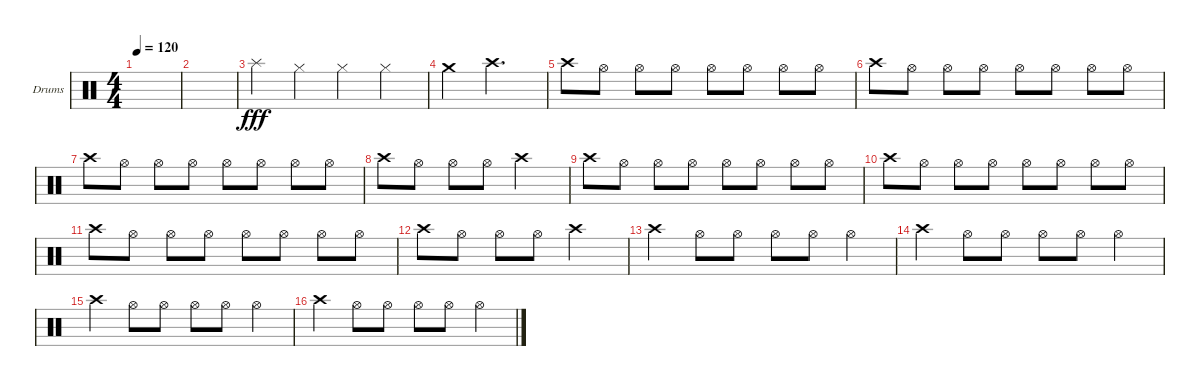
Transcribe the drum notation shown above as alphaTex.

\defaultSystemsLayout 4
\bracketExtendMode groupsimilarinstruments
\firstSystemTrackNameOrientation horizontal
\otherSystemsTrackNameOrientation horizontal
\track ("Пашок" "Drums") {instrument percussion}
\staff {score}
\articulation defaults
\ts (4 4)
\tempo 120
\clef neutral
\ks c
|
|
"Splash (hit)".4{dy fff} "Hi-Hat (closed)".4 "Hi-Hat (closed)".4 "Hi-Hat (closed)".4 |
"Crash medium (hit)".4 "Crash high (hit)".2{d} |
"Crash high (hit)".8 "Hi-Hat (open)".8 "Hi-Hat (open)".8 "Hi-Hat (open)".8 "Hi-Hat (open)".8 "Hi-Hat (open)".8 "Hi-Hat (open)".8 "Hi-Hat (open)".8 |
"Crash high (hit)".8 "Hi-Hat (open)".8 "Hi-Hat (open)".8 "Hi-Hat (open)".8 "Hi-Hat (open)".8 "Hi-Hat (open)".8 "Hi-Hat (open)".8 "Hi-Hat (open)".8 |
"Crash high (hit)".8 "Hi-Hat (open)".8 "Hi-Hat (open)".8 "Hi-Hat (open)".8 "Hi-Hat (open)".8 "Hi-Hat (open)".8 "Hi-Hat (open)".8 "Hi-Hat (open)".8 |
"Crash high (hit)".8 "Hi-Hat (open)".8 "Hi-Hat (open)".8 "Hi-Hat (open)".8 "Crash high (hit)".2 |
"Crash high (hit)".8 "Hi-Hat (open)".8 "Hi-Hat (open)".8 "Hi-Hat (open)".8 "Hi-Hat (open)".8 "Hi-Hat (open)".8 "Hi-Hat (open)".8 "Hi-Hat (open)".8 |
"Crash high (hit)".8 "Hi-Hat (open)".8 "Hi-Hat (open)".8 "Hi-Hat (open)".8 "Hi-Hat (open)".8 "Hi-Hat (open)".8 "Hi-Hat (open)".8 "Hi-Hat (open)".8 |
"Crash high (hit)".8 "Hi-Hat (open)".8 "Hi-Hat (open)".8 "Hi-Hat (open)".8 "Hi-Hat (open)".8 "Hi-Hat (open)".8 "Hi-Hat (open)".8 "Hi-Hat (open)".8 |
"Crash high (hit)".8 "Hi-Hat (open)".8 "Hi-Hat (open)".8 "Hi-Hat (open)".8 "Crash high (hit)".2 |
"Crash high (hit)".4 "Hi-Hat (open)".8 "Hi-Hat (open)".8 "Hi-Hat (open)".8 "Hi-Hat (open)".8 "Hi-Hat (open)".4 |
"Crash high (hit)".4 "Hi-Hat (open)".8 "Hi-Hat (open)".8 "Hi-Hat (open)".8 "Hi-Hat (open)".8 "Hi-Hat (open)".4 |
"Crash high (hit)".4 "Hi-Hat (open)".8 "Hi-Hat (open)".8 "Hi-Hat (open)".8 "Hi-Hat (open)".8 "Hi-Hat (open)".4 |
"Crash high (hit)".4 "Hi-Hat (open)".8 "Hi-Hat (open)".8 "Hi-Hat (open)".8 "Hi-Hat (open)".8 "Hi-Hat (open)".4
